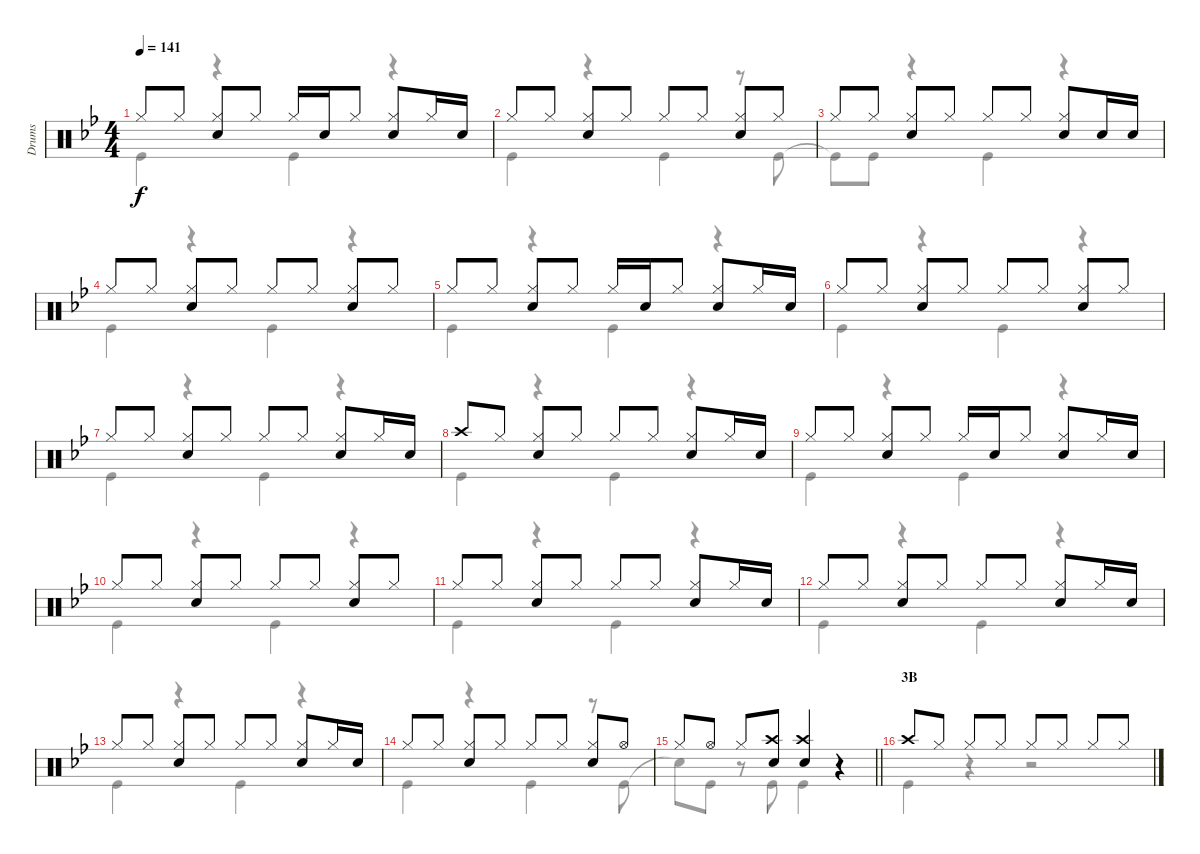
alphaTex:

\track ("Drums" "Drums") {instrument percussion}
\staff {score}
\articulation defaults
\voice
\ts (4 4)
\tempo 141
\clef neutral
\ks bb "Hi-Hat (closed)".8{dy f} "Hi-Hat (closed)".8
("Hi-Hat (closed)" "Snare (hit) 2").8 "Hi-Hat (closed)".8 "Hi-Hat (closed)".16 "Snare (hit) 2".16 "Hi-Hat (closed)".8 ("Hi-Hat (closed)" "Snare (hit) 2").8 "Hi-Hat (closed)".16 "Snare (hit) 2".16 |
"Hi-Hat (closed)".8 "Hi-Hat (closed)".8 ("Hi-Hat (closed)" "Snare (hit) 2").8 "Hi-Hat (closed)".8 "Hi-Hat (closed)".8 "Hi-Hat (closed)".8 ("Hi-Hat (closed)" "Snare (hit) 2").8 "Hi-Hat (closed)".8 |
"Hi-Hat (closed)".8 "Hi-Hat (closed)".8 ("Hi-Hat (closed)" "Snare (hit) 2").8 "Hi-Hat (closed)".8 "Hi-Hat (closed)".8 "Hi-Hat (closed)".8 ("Hi-Hat (closed)" "Snare (hit) 2").8 "Snare (hit) 2".16 "Snare (hit) 2".16 |
"Hi-Hat (closed)".8 "Hi-Hat (closed)".8 ("Hi-Hat (closed)" "Snare (hit) 2").8 "Hi-Hat (closed)".8 "Hi-Hat (closed)".8 "Hi-Hat (closed)".8 ("Hi-Hat (closed)" "Snare (hit) 2").8 "Hi-Hat (closed)".8 |
"Hi-Hat (closed)".8 "Hi-Hat (closed)".8 ("Hi-Hat (closed)" "Snare (hit) 2").8 "Hi-Hat (closed)".8 "Hi-Hat (closed)".16 "Snare (hit) 2".16 "Hi-Hat (closed)".8 ("Hi-Hat (closed)" "Snare (hit) 2").8 "Hi-Hat (closed)".16 "Snare (hit) 2".16 |
"Hi-Hat (closed)".8 "Hi-Hat (closed)".8 ("Hi-Hat (closed)" "Snare (hit) 2").8 "Hi-Hat (closed)".8 "Hi-Hat (closed)".8 "Hi-Hat (closed)".8 ("Hi-Hat (closed)" "Snare (hit) 2").8 "Hi-Hat (closed)".8 |
"Hi-Hat (closed)".8 "Hi-Hat (closed)".8 ("Hi-Hat (closed)" "Snare (hit) 2").8 "Hi-Hat (closed)".8 "Hi-Hat (closed)".8 "Hi-Hat (closed)".8 ("Hi-Hat (closed)" "Snare (hit) 2").8 "Hi-Hat (closed)".16 "Snare (hit) 2".16 |
"Crash high (hit)".8 "Hi-Hat (closed)".8 ("Hi-Hat (closed)" "Snare (hit) 2").8 "Hi-Hat (closed)".8 "Hi-Hat (closed)".8 "Hi-Hat (closed)".8 ("Hi-Hat (closed)" "Snare (hit) 2").8 "Hi-Hat (closed)".16 "Snare (hit) 2".16 |
"Hi-Hat (closed)".8 "Hi-Hat (closed)".8 ("Hi-Hat (closed)" "Snare (hit) 2").8 "Hi-Hat (closed)".8 "Hi-Hat (closed)".16 "Snare (hit) 2".16 "Hi-Hat (closed)".8 ("Hi-Hat (closed)" "Snare (hit) 2").8 "Hi-Hat (closed)".16 "Snare (hit) 2".16 |
"Hi-Hat (closed)".8 "Hi-Hat (closed)".8 ("Hi-Hat (closed)" "Snare (hit) 2").8 "Hi-Hat (closed)".8 "Hi-Hat (closed)".8 "Hi-Hat (closed)".8 ("Hi-Hat (closed)" "Snare (hit) 2").8 "Hi-Hat (closed)".8 |
"Hi-Hat (closed)".8 "Hi-Hat (closed)".8 ("Hi-Hat (closed)" "Snare (hit) 2").8 "Hi-Hat (closed)".8 "Hi-Hat (closed)".8 "Hi-Hat (closed)".8 ("Hi-Hat (closed)" "Snare (hit) 2").8 "Hi-Hat (closed)".16 "Snare (hit) 2".16 |
"Hi-Hat (closed)".8 "Hi-Hat (closed)".8 ("Hi-Hat (closed)" "Snare (hit) 2").8 "Hi-Hat (closed)".8 "Hi-Hat (closed)".8 "Hi-Hat (closed)".8 ("Hi-Hat (closed)" "Snare (hit) 2").8 "Hi-Hat (closed)".16 "Snare (hit) 2".16 |
"Hi-Hat (closed)".8 "Hi-Hat (closed)".8 ("Hi-Hat (closed)" "Snare (hit) 2").8 "Hi-Hat (closed)".8 "Hi-Hat (closed)".8 "Hi-Hat (closed)".8 ("Hi-Hat (closed)" "Snare (hit) 2").8 "Hi-Hat (closed)".16 "Snare (hit) 2".16 |
"Hi-Hat (closed)".8 "Hi-Hat (closed)".8 ("Hi-Hat (closed)" "Snare (hit) 2").8 "Hi-Hat (closed)".8 "Hi-Hat (closed)".8 "Hi-Hat (closed)".8 ("Hi-Hat (closed)" "Snare (hit) 2").8 "Hi-Hat (open)".8 |
\barLineRight lightlight "Hi-Hat (closed)".8 "Hi-Hat (open)".8 "Hi-Hat (closed)".8
("Crash high (hit)" "Snare (hit) 2").8 ("Crash high (hit)" "Snare (hit) 2").4 r.4 |
\section ("" "3B")
"Crash high (hit)".8 "Hi-Hat (closed)".8 "Hi-Hat (closed)".8 "Hi-Hat (closed)".8 "Hi-Hat (closed)".8 "Hi-Hat (closed)".8 "Hi-Hat (closed)".8 "Hi-Hat (closed)".8
\voice
\clef neutral
\ottava regular
\simile none
\ks bb "Kick (hit)".4{dy f}
r.4 "Kick (hit)".4 r.4 |
"Kick (hit)".4 r.4 "Kick (hit)".4 r.8 "Kick (hit)".8 |
"Kick (hit)"{t}.8 "Kick (hit)".8 r.4 "Kick (hit)".4 r.4 |
"Kick (hit)".4 r.4 "Kick (hit)".4 r.4 |
"Kick (hit)".4 r.4 "Kick (hit)".4 r.4 |
"Kick (hit)".4 r.4 "Kick (hit)".4 r.4 |
"Kick (hit)".4 r.4 "Kick (hit)".4 r.4 |
"Kick (hit)".4 r.4 "Kick (hit)".4 r.4 |
"Kick (hit)".4 r.4 "Kick (hit)".4 r.4 |
"Kick (hit)".4 r.4 "Kick (hit)".4 r.4 |
"Kick (hit)".4 r.4 "Kick (hit)".4 r.4 |
"Kick (hit)".4 r.4 "Kick (hit)".4 r.4 |
"Kick (hit)".4 r.4 "Kick (hit)".4 r.4 |
"Kick (hit)".4 r.4 "Kick (hit)".4 r.8 "Kick (hit)".8 |
\barLineRight lightlight "Snare (hit)"{t}.8 "Kick (hit)".8
r.8 "Kick (hit)".8 "Kick (hit)".4 r.4 |
"Kick (hit)".4 r.4 r.2
